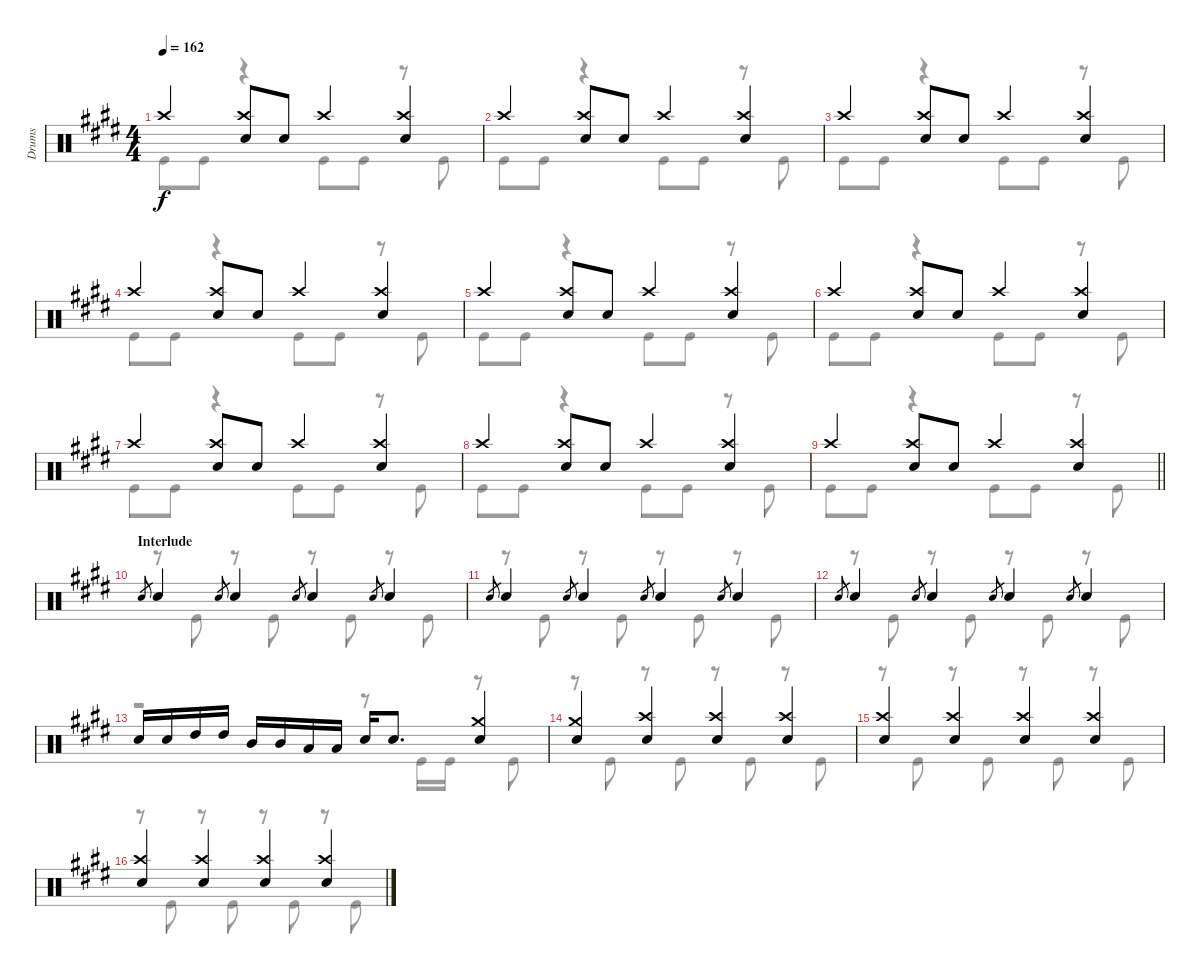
\track ("Drums" "Drums") {instrument percussion}
\staff {score}
\articulation defaults
\voice
\ts (4 4)
\tempo 162
\clef neutral
\ks e "Crash high (hit)".4{dy f}
("Crash high (hit)" "Electric Snare (hit)").8 "Electric Snare (hit)".8 "Crash high (hit)".4 ("Crash high (hit)" "Electric Snare (hit)").4 |
"Crash high (hit)".4 ("Crash high (hit)" "Electric Snare (hit)").8 "Electric Snare (hit)".8 "Crash high (hit)".4 ("Crash high (hit)" "Electric Snare (hit)").4 |
"Crash high (hit)".4 ("Crash high (hit)" "Electric Snare (hit)").8 "Electric Snare (hit)".8 "Crash high (hit)".4 ("Crash high (hit)" "Electric Snare (hit)").4 |
"Crash high (hit)".4 ("Crash high (hit)" "Electric Snare (hit)").8 "Electric Snare (hit)".8 "Crash high (hit)".4 ("Crash high (hit)" "Electric Snare (hit)").4 |
"Crash high (hit)".4 ("Crash high (hit)" "Electric Snare (hit)").8 "Electric Snare (hit)".8 "Crash high (hit)".4 ("Crash high (hit)" "Electric Snare (hit)").4 |
"Crash high (hit)".4 ("Crash high (hit)" "Electric Snare (hit)").8 "Electric Snare (hit)".8 "Crash high (hit)".4 ("Crash high (hit)" "Electric Snare (hit)").4 |
"Crash high (hit)".4 ("Crash high (hit)" "Electric Snare (hit)").8 "Electric Snare (hit)".8 "Crash high (hit)".4 ("Crash high (hit)" "Electric Snare (hit)").4 |
"Crash high (hit)".4 ("Crash high (hit)" "Electric Snare (hit)").8 "Electric Snare (hit)".8 "Crash high (hit)".4 ("Crash high (hit)" "Electric Snare (hit)").4 |
\barLineRight lightlight "Crash high (hit)".4
("Crash high (hit)" "Electric Snare (hit)").8 "Electric Snare (hit)".8 "Crash high (hit)".4 ("Crash high (hit)" "Electric Snare (hit)").4 |
\section ("" "Interlude")
"Electric Snare (hit)".8{gr} "Electric Snare (hit)".4 "Electric Snare (hit)".8{gr} "Electric Snare (hit)".4 "Electric Snare (hit)".8{gr} "Electric Snare (hit)".4 "Electric Snare (hit)".8{gr} "Electric Snare (hit)".4 |
"Electric Snare (hit)".8{gr} "Electric Snare (hit)".4 "Electric Snare (hit)".8{gr} "Electric Snare (hit)".4 "Electric Snare (hit)".8{gr} "Electric Snare (hit)".4 "Electric Snare (hit)".8{gr} "Electric Snare (hit)".4 |
"Electric Snare (hit)".8{gr} "Electric Snare (hit)".4 "Electric Snare (hit)".8{gr} "Electric Snare (hit)".4 "Electric Snare (hit)".8{gr} "Electric Snare (hit)".4 "Electric Snare (hit)".8{gr} "Electric Snare (hit)".4 |
"Electric Snare (hit)".16 "Electric Snare (hit)".16 "High Tom (hit)".16 "High Tom (hit)".16 "Mid Tom (hit)".16 "Mid Tom (hit)".16 "Low Tom (hit)".16 "Low Tom (hit)".16 "Electric Snare (hit)".16 "Electric Snare (hit)".8{d} ("Crash medium (hit)" "Electric Snare (hit)").4 |
("Crash medium (hit)" "Electric Snare (hit)").4 ("Crash high (hit)" "Electric Snare (hit)").4 ("Crash high (hit)" "Electric Snare (hit)").4 ("Crash high (hit)" "Electric Snare (hit)").4 |
("Crash high (hit)" "Electric Snare (hit)").4 ("Crash high (hit)" "Electric Snare (hit)").4 ("Crash high (hit)" "Electric Snare (hit)").4 ("Crash high (hit)" "Electric Snare (hit)").4 |
("Crash high (hit)" "Electric Snare (hit)").4 ("Crash high (hit)" "Electric Snare (hit)").4 ("Crash high (hit)" "Electric Snare (hit)").4 ("Crash high (hit)" "Electric Snare (hit)").4
\voice
\clef neutral
\ottava regular
\simile none
\ks e "Kick (hit)".8{dy f} "Kick (hit)".8
r.4 "Kick (hit)".8 "Kick (hit)".8 r.8 "Kick (hit)".8 |
"Kick (hit)".8 "Kick (hit)".8 r.4 "Kick (hit)".8 "Kick (hit)".8 r.8 "Kick (hit)".8 |
"Kick (hit)".8 "Kick (hit)".8 r.4 "Kick (hit)".8 "Kick (hit)".8 r.8 "Kick (hit)".8 |
"Kick (hit)".8 "Kick (hit)".8 r.4 "Kick (hit)".8 "Kick (hit)".8 r.8 "Kick (hit)".8 |
"Kick (hit)".8 "Kick (hit)".8 r.4 "Kick (hit)".8 "Kick (hit)".8 r.8 "Kick (hit)".8 |
"Kick (hit)".8 "Kick (hit)".8 r.4 "Kick (hit)".8 "Kick (hit)".8 r.8 "Kick (hit)".8 |
"Kick (hit)".8 "Kick (hit)".8 r.4 "Kick (hit)".8 "Kick (hit)".8 r.8 "Kick (hit)".8 |
"Kick (hit)".8 "Kick (hit)".8 r.4 "Kick (hit)".8 "Kick (hit)".8 r.8 "Kick (hit)".8 |
\barLineRight lightlight "Kick (hit)".8 "Kick (hit)".8
r.4 "Kick (hit)".8 "Kick (hit)".8 r.8 "Kick (hit)".8 |
r.8 "Kick (hit)".8 r.8 "Kick (hit)".8 r.8 "Kick (hit)".8 r.8 "Kick (hit)".8 |
r.8 "Kick (hit)".8 r.8 "Kick (hit)".8 r.8 "Kick (hit)".8 r.8 "Kick (hit)".8 |
r.8 "Kick (hit)".8 r.8 "Kick (hit)".8 r.8 "Kick (hit)".8 r.8 "Kick (hit)".8 |
r.2 r.8 "Kick (hit)".16 "Kick (hit)".16 r.8 "Kick (hit)".8 |
r.8 "Kick (hit)".8 r.8 "Kick (hit)".8 r.8 "Kick (hit)".8 r.8 "Kick (hit)".8 |
r.8 "Kick (hit)".8 r.8 "Kick (hit)".8 r.8 "Kick (hit)".8 r.8 "Kick (hit)".8 |
r.8 "Kick (hit)".8 r.8 "Kick (hit)".8 r.8 "Kick (hit)".8 r.8 "Kick (hit)".8
